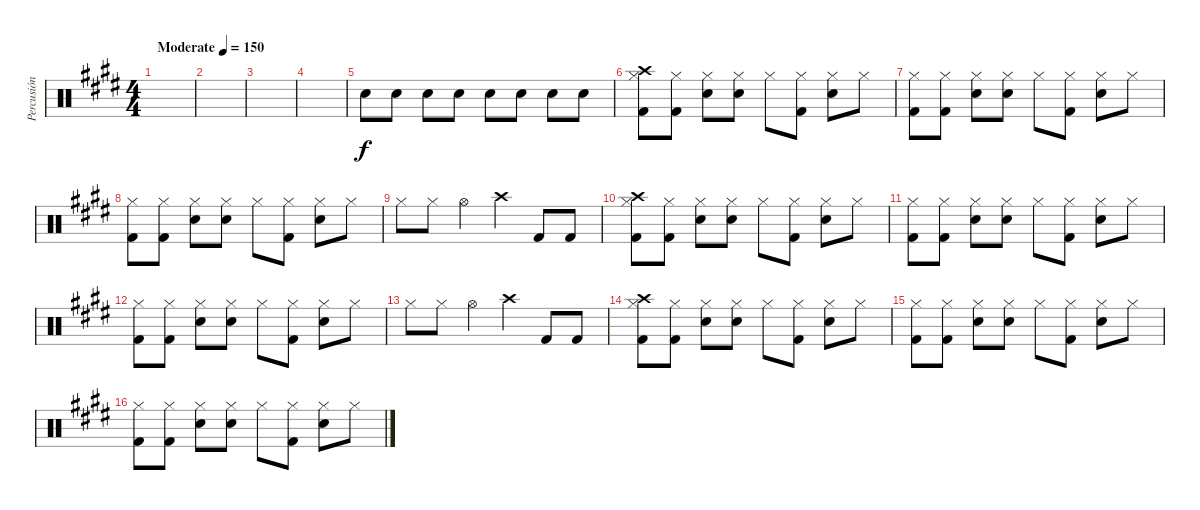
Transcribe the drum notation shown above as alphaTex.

\track ("Percusión" "Percusión") {instrument percussion}
\staff {score}
\articulation defaults
\ts (4 4)
\tempo (150 "Moderate")
\clef neutral
\ks e
|
|
|
|
"Snare (hit) 2".8 "Snare (hit) 2".8 "Snare (hit) 2".8 "Snare (hit) 2".8 "Snare (hit) 2".8 "Snare (hit) 2".8 "Snare (hit) 2".8 "Snare (hit) 2".8 |
("Kick (hit) 2" "Hi-Hat (closed)" "Crash high (hit)").8 ("Kick (hit) 2" "Hi-Hat (closed)").8 ("Snare (hit) 2" "Hi-Hat (closed)").8 ("Snare (hit) 2" "Hi-Hat (closed)").8 "Hi-Hat (closed)".8 ("Kick (hit) 2" "Hi-Hat (closed)").8 ("Snare (hit) 2" "Hi-Hat (closed)").8 "Hi-Hat (closed)".8 |
("Kick (hit) 2" "Hi-Hat (closed)").8 ("Kick (hit) 2" "Hi-Hat (closed)").8 ("Snare (hit) 2" "Hi-Hat (closed)").8 ("Snare (hit) 2" "Hi-Hat (closed)").8 "Hi-Hat (closed)".8 ("Kick (hit) 2" "Hi-Hat (closed)").8 ("Snare (hit) 2" "Hi-Hat (closed)").8 "Hi-Hat (closed)".8 |
("Kick (hit) 2" "Hi-Hat (closed)").8 ("Kick (hit) 2" "Hi-Hat (closed)").8 ("Snare (hit) 2" "Hi-Hat (closed)").8 ("Snare (hit) 2" "Hi-Hat (closed)").8 "Hi-Hat (closed)".8 ("Kick (hit) 2" "Hi-Hat (closed)").8 ("Snare (hit) 2" "Hi-Hat (closed)").8 "Hi-Hat (closed)".8 |
"Hi-Hat (closed)".8 "Hi-Hat (closed)".8 "Hi-Hat (open)".4 "Crash high (hit)".4 "Kick (hit) 2".8 "Kick (hit) 2".8 |
("Kick (hit) 2" "Hi-Hat (closed)" "Crash high (hit)").8 ("Kick (hit) 2" "Hi-Hat (closed)").8 ("Snare (hit) 2" "Hi-Hat (closed)").8 ("Snare (hit) 2" "Hi-Hat (closed)").8 "Hi-Hat (closed)".8 ("Kick (hit) 2" "Hi-Hat (closed)").8 ("Snare (hit) 2" "Hi-Hat (closed)").8 "Hi-Hat (closed)".8 |
("Kick (hit) 2" "Hi-Hat (closed)").8 ("Kick (hit) 2" "Hi-Hat (closed)").8 ("Snare (hit) 2" "Hi-Hat (closed)").8 ("Snare (hit) 2" "Hi-Hat (closed)").8 "Hi-Hat (closed)".8 ("Kick (hit) 2" "Hi-Hat (closed)").8 ("Snare (hit) 2" "Hi-Hat (closed)").8 "Hi-Hat (closed)".8 |
("Kick (hit) 2" "Hi-Hat (closed)").8 ("Kick (hit) 2" "Hi-Hat (closed)").8 ("Snare (hit) 2" "Hi-Hat (closed)").8 ("Snare (hit) 2" "Hi-Hat (closed)").8 "Hi-Hat (closed)".8 ("Kick (hit) 2" "Hi-Hat (closed)").8 ("Snare (hit) 2" "Hi-Hat (closed)").8 "Hi-Hat (closed)".8 |
"Hi-Hat (closed)".8 "Hi-Hat (closed)".8 "Hi-Hat (open)".4 "Crash high (hit)".4 "Kick (hit) 2".8 "Kick (hit) 2".8 |
("Kick (hit) 2" "Hi-Hat (closed)" "Crash high (hit)").8 ("Kick (hit) 2" "Hi-Hat (closed)").8 ("Snare (hit) 2" "Hi-Hat (closed)").8 ("Snare (hit) 2" "Hi-Hat (closed)").8 "Hi-Hat (closed)".8 ("Kick (hit) 2" "Hi-Hat (closed)").8 ("Snare (hit) 2" "Hi-Hat (closed)").8 "Hi-Hat (closed)".8 |
("Kick (hit) 2" "Hi-Hat (closed)").8 ("Kick (hit) 2" "Hi-Hat (closed)").8 ("Snare (hit) 2" "Hi-Hat (closed)").8 ("Snare (hit) 2" "Hi-Hat (closed)").8 "Hi-Hat (closed)".8 ("Kick (hit) 2" "Hi-Hat (closed)").8 ("Snare (hit) 2" "Hi-Hat (closed)").8 "Hi-Hat (closed)".8 |
("Kick (hit) 2" "Hi-Hat (closed)").8 ("Kick (hit) 2" "Hi-Hat (closed)").8 ("Snare (hit) 2" "Hi-Hat (closed)").8 ("Snare (hit) 2" "Hi-Hat (closed)").8 "Hi-Hat (closed)".8 ("Kick (hit) 2" "Hi-Hat (closed)").8 ("Snare (hit) 2" "Hi-Hat (closed)").8 "Hi-Hat (closed)".8
